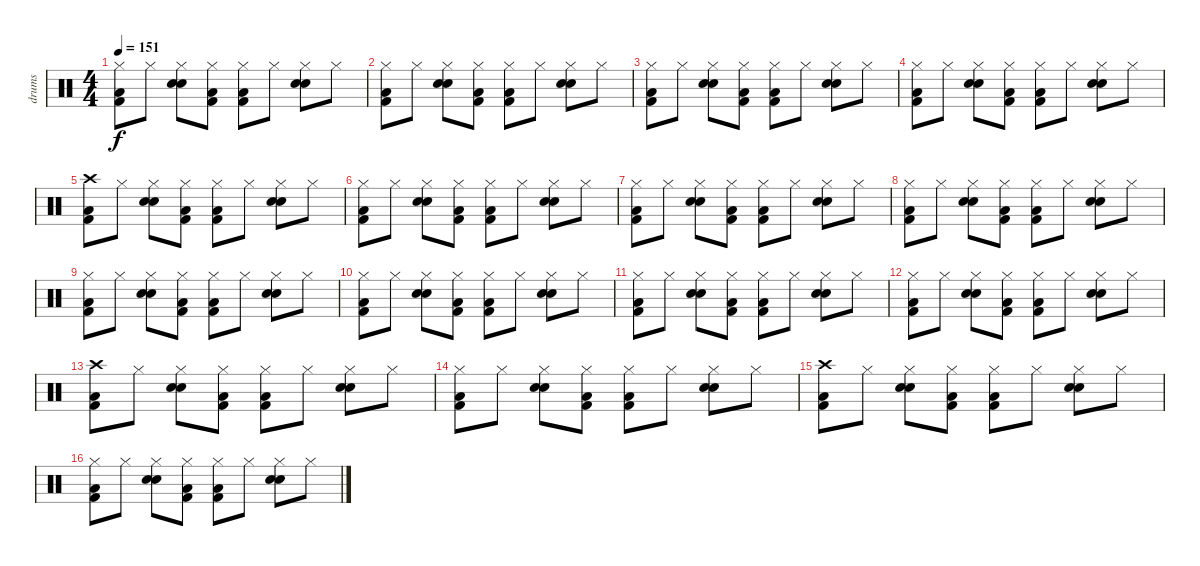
\track ("drums" "drums") {instrument percussion}
\staff {score}
\articulation defaults
\ts (4 4)
\tempo 151
\clef neutral
\ks c
("Hi-Hat (closed)" "Low Floor Tom (hit)" "Kick (hit) 2").8{dy f} "Hi-Hat (closed)".8 ("Hi-Hat (closed)" "Snare (hit) 2" "Snare (hit) 2").8 ("Hi-Hat (closed)" "Low Floor Tom (hit)" "Kick (hit) 2").8 ("Hi-Hat (closed)" "Low Floor Tom (hit)" "Kick (hit) 2").8 "Hi-Hat (closed)".8 ("Hi-Hat (closed)" "Snare (hit) 2" "Snare (hit) 2").8 "Hi-Hat (closed)".8 |
("Hi-Hat (closed)" "Low Floor Tom (hit)" "Kick (hit) 2").8 "Hi-Hat (closed)".8 ("Hi-Hat (closed)" "Snare (hit) 2" "Snare (hit) 2").8 ("Hi-Hat (closed)" "Low Floor Tom (hit)" "Kick (hit) 2").8 ("Hi-Hat (closed)" "Low Floor Tom (hit)" "Kick (hit) 2").8 "Hi-Hat (closed)".8 ("Hi-Hat (closed)" "Snare (hit) 2" "Snare (hit) 2").8 "Hi-Hat (closed)".8 |
("Hi-Hat (closed)" "Low Floor Tom (hit)" "Kick (hit) 2").8 "Hi-Hat (closed)".8 ("Hi-Hat (closed)" "Snare (hit) 2" "Snare (hit) 2").8 ("Hi-Hat (closed)" "Low Floor Tom (hit)" "Kick (hit) 2").8 ("Hi-Hat (closed)" "Low Floor Tom (hit)" "Kick (hit) 2").8 "Hi-Hat (closed)".8 ("Hi-Hat (closed)" "Snare (hit) 2" "Snare (hit) 2").8 "Hi-Hat (closed)".8 |
("Hi-Hat (closed)" "Low Floor Tom (hit)" "Kick (hit) 2").8 "Hi-Hat (closed)".8 ("Hi-Hat (closed)" "Snare (hit) 2" "Snare (hit) 2").8 ("Hi-Hat (closed)" "Low Floor Tom (hit)" "Kick (hit) 2").8 ("Hi-Hat (closed)" "Low Floor Tom (hit)" "Kick (hit) 2").8 "Hi-Hat (closed)".8 ("Hi-Hat (closed)" "Snare (hit) 2" "Snare (hit) 2").8 "Hi-Hat (closed)".8 |
("Crash high (hit)" "Low Floor Tom (hit)" "Kick (hit) 2").8 "Hi-Hat (closed)".8 ("Hi-Hat (closed)" "Snare (hit) 2" "Snare (hit) 2").8 ("Hi-Hat (closed)" "Low Floor Tom (hit)" "Kick (hit) 2").8 ("Hi-Hat (closed)" "Low Floor Tom (hit)" "Kick (hit) 2").8 "Hi-Hat (closed)".8 ("Hi-Hat (closed)" "Snare (hit) 2" "Snare (hit) 2").8 "Hi-Hat (closed)".8 |
("Hi-Hat (closed)" "Low Floor Tom (hit)" "Kick (hit) 2").8 "Hi-Hat (closed)".8 ("Hi-Hat (closed)" "Snare (hit) 2" "Snare (hit) 2").8 ("Hi-Hat (closed)" "Low Floor Tom (hit)" "Kick (hit) 2").8 ("Hi-Hat (closed)" "Low Floor Tom (hit)" "Kick (hit) 2").8 "Hi-Hat (closed)".8 ("Hi-Hat (closed)" "Snare (hit) 2" "Snare (hit) 2").8 "Hi-Hat (closed)".8 |
("Hi-Hat (closed)" "Low Floor Tom (hit)" "Kick (hit) 2").8 "Hi-Hat (closed)".8 ("Hi-Hat (closed)" "Snare (hit) 2" "Snare (hit) 2").8 ("Hi-Hat (closed)" "Low Floor Tom (hit)" "Kick (hit) 2").8 ("Hi-Hat (closed)" "Low Floor Tom (hit)" "Kick (hit) 2").8 "Hi-Hat (closed)".8 ("Hi-Hat (closed)" "Snare (hit) 2" "Snare (hit) 2").8 "Hi-Hat (closed)".8 |
("Hi-Hat (closed)" "Low Floor Tom (hit)" "Kick (hit) 2").8 "Hi-Hat (closed)".8 ("Hi-Hat (closed)" "Snare (hit) 2" "Snare (hit) 2").8 ("Hi-Hat (closed)" "Low Floor Tom (hit)" "Kick (hit) 2").8 ("Hi-Hat (closed)" "Low Floor Tom (hit)" "Kick (hit) 2").8 "Hi-Hat (closed)".8 ("Hi-Hat (closed)" "Snare (hit) 2" "Snare (hit) 2").8 "Hi-Hat (closed)".8 |
("Hi-Hat (closed)" "Low Floor Tom (hit)" "Kick (hit) 2").8 "Hi-Hat (closed)".8 ("Hi-Hat (closed)" "Snare (hit) 2" "Snare (hit) 2").8 ("Hi-Hat (closed)" "Low Floor Tom (hit)" "Kick (hit) 2").8 ("Hi-Hat (closed)" "Low Floor Tom (hit)" "Kick (hit) 2").8 "Hi-Hat (closed)".8 ("Hi-Hat (closed)" "Snare (hit) 2" "Snare (hit) 2").8 "Hi-Hat (closed)".8 |
("Hi-Hat (closed)" "Low Floor Tom (hit)" "Kick (hit) 2").8 "Hi-Hat (closed)".8 ("Hi-Hat (closed)" "Snare (hit) 2" "Snare (hit) 2").8 ("Hi-Hat (closed)" "Low Floor Tom (hit)" "Kick (hit) 2").8 ("Hi-Hat (closed)" "Low Floor Tom (hit)" "Kick (hit) 2").8 "Hi-Hat (closed)".8 ("Hi-Hat (closed)" "Snare (hit) 2" "Snare (hit) 2").8 "Hi-Hat (closed)".8 |
("Hi-Hat (closed)" "Low Floor Tom (hit)" "Kick (hit) 2").8 "Hi-Hat (closed)".8 ("Hi-Hat (closed)" "Snare (hit) 2" "Snare (hit) 2").8 ("Hi-Hat (closed)" "Low Floor Tom (hit)" "Kick (hit) 2").8 ("Hi-Hat (closed)" "Low Floor Tom (hit)" "Kick (hit) 2").8 "Hi-Hat (closed)".8 ("Hi-Hat (closed)" "Snare (hit) 2" "Snare (hit) 2").8 "Hi-Hat (closed)".8 |
("Hi-Hat (closed)" "Low Floor Tom (hit)" "Kick (hit) 2").8 "Hi-Hat (closed)".8 ("Hi-Hat (closed)" "Snare (hit) 2" "Snare (hit) 2").8 ("Hi-Hat (closed)" "Low Floor Tom (hit)" "Kick (hit) 2").8 ("Hi-Hat (closed)" "Low Floor Tom (hit)" "Kick (hit) 2").8 "Hi-Hat (closed)".8 ("Hi-Hat (closed)" "Snare (hit) 2" "Snare (hit) 2").8 "Hi-Hat (closed)".8 |
("Crash high (hit)" "Low Floor Tom (hit)" "Kick (hit) 2").8 "Hi-Hat (closed)".8 ("Hi-Hat (closed)" "Snare (hit) 2" "Snare (hit) 2").8 ("Hi-Hat (closed)" "Low Floor Tom (hit)" "Kick (hit) 2").8 ("Hi-Hat (closed)" "Low Floor Tom (hit)" "Kick (hit) 2").8 "Hi-Hat (closed)".8 ("Hi-Hat (closed)" "Snare (hit) 2" "Snare (hit) 2").8 "Hi-Hat (closed)".8 |
("Hi-Hat (closed)" "Low Floor Tom (hit)" "Kick (hit) 2").8 "Hi-Hat (closed)".8 ("Hi-Hat (closed)" "Snare (hit) 2" "Snare (hit) 2").8 ("Hi-Hat (closed)" "Low Floor Tom (hit)" "Kick (hit) 2").8 ("Hi-Hat (closed)" "Low Floor Tom (hit)" "Kick (hit) 2").8 "Hi-Hat (closed)".8 ("Hi-Hat (closed)" "Snare (hit) 2" "Snare (hit) 2").8 "Hi-Hat (closed)".8 |
("Crash high (hit)" "Low Floor Tom (hit)" "Kick (hit) 2").8 "Hi-Hat (closed)".8 ("Hi-Hat (closed)" "Snare (hit) 2" "Snare (hit) 2").8 ("Hi-Hat (closed)" "Low Floor Tom (hit)" "Kick (hit) 2").8 ("Hi-Hat (closed)" "Low Floor Tom (hit)" "Kick (hit) 2").8 "Hi-Hat (closed)".8 ("Hi-Hat (closed)" "Snare (hit) 2" "Snare (hit) 2").8 "Hi-Hat (closed)".8 |
("Hi-Hat (closed)" "Low Floor Tom (hit)" "Kick (hit) 2").8 "Hi-Hat (closed)".8 ("Hi-Hat (closed)" "Snare (hit) 2" "Snare (hit) 2").8 ("Hi-Hat (closed)" "Low Floor Tom (hit)" "Kick (hit) 2").8 ("Hi-Hat (closed)" "Low Floor Tom (hit)" "Kick (hit) 2").8 "Hi-Hat (closed)".8 ("Hi-Hat (closed)" "Snare (hit) 2" "Snare (hit) 2").8 "Hi-Hat (closed)".8
